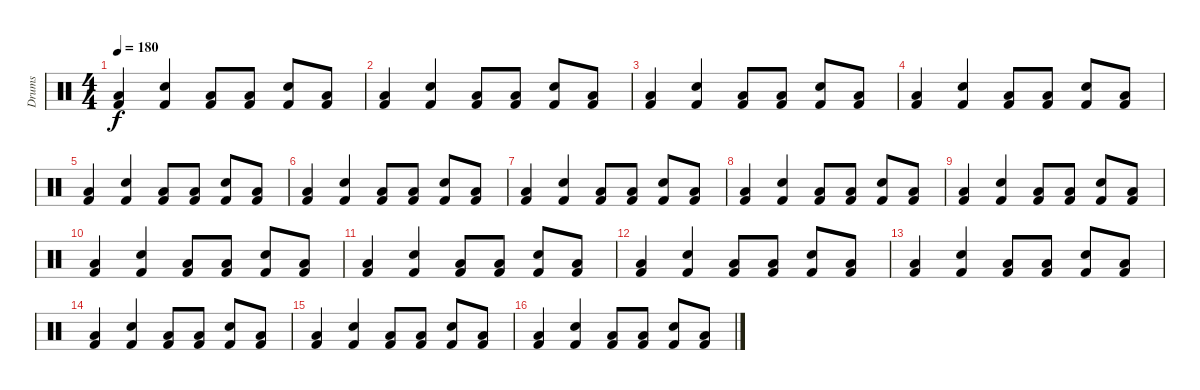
\track ("Drums" "Drums") {instrument percussion}
\staff {score}
\articulation defaults
\ts (4 4)
\tempo 180
\clef neutral
\ks c
("Kick (hit) 2" "Low Tom (hit)").4{dy f} ("Kick (hit) 2" "Electric Snare (hit)").4 ("Kick (hit) 2" "Low Tom (hit)").8 ("Kick (hit) 2" "Low Tom (hit)").8 ("Kick (hit) 2" "Electric Snare (hit)").8 ("Kick (hit) 2" "Low Tom (hit)").8 |
("Kick (hit) 2" "Low Tom (hit)").4 ("Kick (hit) 2" "Electric Snare (hit)").4 ("Kick (hit) 2" "Low Tom (hit)").8 ("Kick (hit) 2" "Low Tom (hit)").8 ("Kick (hit) 2" "Electric Snare (hit)").8 ("Kick (hit) 2" "Low Tom (hit)").8 |
("Kick (hit) 2" "Low Tom (hit)").4 ("Kick (hit) 2" "Electric Snare (hit)").4 ("Kick (hit) 2" "Low Tom (hit)").8 ("Kick (hit) 2" "Low Tom (hit)").8 ("Kick (hit) 2" "Electric Snare (hit)").8 ("Kick (hit) 2" "Low Tom (hit)").8 |
("Kick (hit) 2" "Low Tom (hit)").4 ("Kick (hit) 2" "Electric Snare (hit)").4 ("Kick (hit) 2" "Low Tom (hit)").8 ("Kick (hit) 2" "Low Tom (hit)").8 ("Kick (hit) 2" "Electric Snare (hit)").8 ("Kick (hit) 2" "Low Tom (hit)").8 |
("Kick (hit) 2" "Low Tom (hit)").4 ("Kick (hit) 2" "Electric Snare (hit)").4 ("Kick (hit) 2" "Low Tom (hit)").8 ("Kick (hit) 2" "Low Tom (hit)").8 ("Kick (hit) 2" "Electric Snare (hit)").8 ("Kick (hit) 2" "Low Tom (hit)").8 |
("Kick (hit) 2" "Low Tom (hit)").4 ("Kick (hit) 2" "Electric Snare (hit)").4 ("Kick (hit) 2" "Low Tom (hit)").8 ("Kick (hit) 2" "Low Tom (hit)").8 ("Kick (hit) 2" "Electric Snare (hit)").8 ("Kick (hit) 2" "Low Tom (hit)").8 |
("Kick (hit) 2" "Low Tom (hit)").4 ("Kick (hit) 2" "Electric Snare (hit)").4 ("Kick (hit) 2" "Low Tom (hit)").8 ("Kick (hit) 2" "Low Tom (hit)").8 ("Kick (hit) 2" "Electric Snare (hit)").8 ("Kick (hit) 2" "Low Tom (hit)").8 |
("Kick (hit) 2" "Low Tom (hit)").4 ("Kick (hit) 2" "Electric Snare (hit)").4 ("Kick (hit) 2" "Low Tom (hit)").8 ("Kick (hit) 2" "Low Tom (hit)").8 ("Kick (hit) 2" "Electric Snare (hit)").8 ("Kick (hit) 2" "Low Tom (hit)").8 |
("Kick (hit) 2" "Low Tom (hit)").4 ("Kick (hit) 2" "Electric Snare (hit)").4 ("Kick (hit) 2" "Low Tom (hit)").8 ("Kick (hit) 2" "Low Tom (hit)").8 ("Kick (hit) 2" "Electric Snare (hit)").8 ("Kick (hit) 2" "Low Tom (hit)").8 |
("Kick (hit) 2" "Low Tom (hit)").4 ("Kick (hit) 2" "Electric Snare (hit)").4 ("Kick (hit) 2" "Low Tom (hit)").8 ("Kick (hit) 2" "Low Tom (hit)").8 ("Kick (hit) 2" "Electric Snare (hit)").8 ("Kick (hit) 2" "Low Tom (hit)").8 |
("Kick (hit) 2" "Low Tom (hit)").4 ("Kick (hit) 2" "Electric Snare (hit)").4 ("Kick (hit) 2" "Low Tom (hit)").8 ("Kick (hit) 2" "Low Tom (hit)").8 ("Kick (hit) 2" "Electric Snare (hit)").8 ("Kick (hit) 2" "Low Tom (hit)").8 |
("Kick (hit) 2" "Low Tom (hit)").4 ("Kick (hit) 2" "Electric Snare (hit)").4 ("Kick (hit) 2" "Low Tom (hit)").8 ("Kick (hit) 2" "Low Tom (hit)").8 ("Kick (hit) 2" "Electric Snare (hit)").8 ("Kick (hit) 2" "Low Tom (hit)").8 |
("Kick (hit) 2" "Low Tom (hit)").4 ("Kick (hit) 2" "Electric Snare (hit)").4 ("Kick (hit) 2" "Low Tom (hit)").8 ("Kick (hit) 2" "Low Tom (hit)").8 ("Kick (hit) 2" "Electric Snare (hit)").8 ("Kick (hit) 2" "Low Tom (hit)").8 |
("Kick (hit) 2" "Low Tom (hit)").4 ("Kick (hit) 2" "Electric Snare (hit)").4 ("Kick (hit) 2" "Low Tom (hit)").8 ("Kick (hit) 2" "Low Tom (hit)").8 ("Kick (hit) 2" "Electric Snare (hit)").8 ("Kick (hit) 2" "Low Tom (hit)").8 |
("Kick (hit) 2" "Low Tom (hit)").4 ("Kick (hit) 2" "Electric Snare (hit)").4 ("Kick (hit) 2" "Low Tom (hit)").8 ("Kick (hit) 2" "Low Tom (hit)").8 ("Kick (hit) 2" "Electric Snare (hit)").8 ("Kick (hit) 2" "Low Tom (hit)").8 |
("Kick (hit) 2" "Low Tom (hit)").4 ("Kick (hit) 2" "Electric Snare (hit)").4 ("Kick (hit) 2" "Low Tom (hit)").8 ("Kick (hit) 2" "Low Tom (hit)").8 ("Kick (hit) 2" "Electric Snare (hit)").8 ("Kick (hit) 2" "Low Tom (hit)").8
